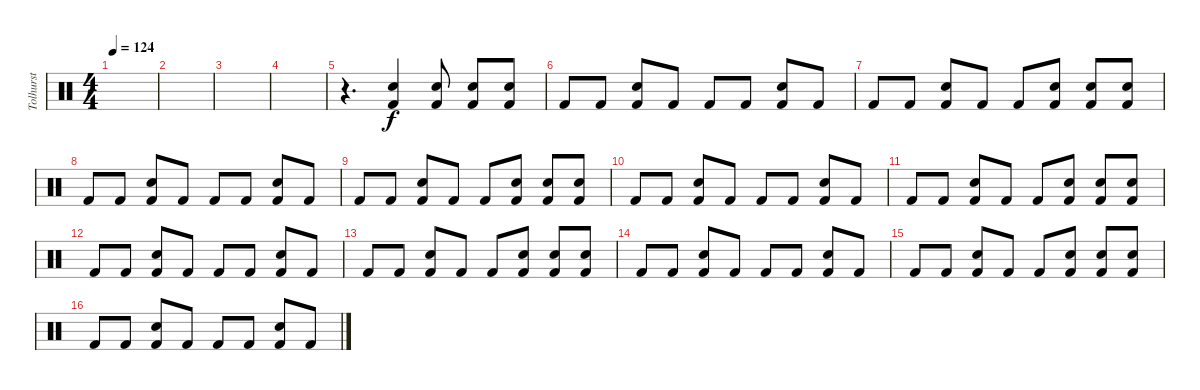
\track ("Tolhurst" "Tolhurst") {instrument percussion}
\staff {score}
\articulation defaults
\ts (4 4)
\tempo 124
\clef neutral
\ks c
|
|
|
|
r.4{d} ("Kick (hit) 2" "Snare (hit) 2").4 ("Kick (hit) 2" "Snare (hit) 2").8 ("Kick (hit) 2" "Snare (hit) 2").8 ("Kick (hit) 2" "Snare (hit) 2").8 |
"Kick (hit) 2".8 "Kick (hit) 2".8 ("Kick (hit) 2" "Snare (hit) 2").8 "Kick (hit) 2".8 "Kick (hit) 2".8 "Kick (hit) 2".8 ("Kick (hit) 2" "Snare (hit) 2").8 "Kick (hit) 2".8 |
"Kick (hit) 2".8 "Kick (hit) 2".8 ("Kick (hit) 2" "Snare (hit) 2").8 "Kick (hit) 2".8 "Kick (hit) 2".8 ("Kick (hit) 2" "Snare (hit) 2").8 ("Kick (hit) 2" "Snare (hit) 2").8 ("Kick (hit) 2" "Snare (hit) 2").8 |
"Kick (hit) 2".8 "Kick (hit) 2".8 ("Kick (hit) 2" "Snare (hit) 2").8 "Kick (hit) 2".8 "Kick (hit) 2".8 "Kick (hit) 2".8 ("Kick (hit) 2" "Snare (hit) 2").8 "Kick (hit) 2".8 |
"Kick (hit) 2".8 "Kick (hit) 2".8 ("Kick (hit) 2" "Snare (hit) 2").8 "Kick (hit) 2".8 "Kick (hit) 2".8 ("Kick (hit) 2" "Snare (hit) 2").8 ("Kick (hit) 2" "Snare (hit) 2").8 ("Kick (hit) 2" "Snare (hit) 2").8 |
"Kick (hit) 2".8 "Kick (hit) 2".8 ("Kick (hit) 2" "Snare (hit) 2").8 "Kick (hit) 2".8 "Kick (hit) 2".8 "Kick (hit) 2".8 ("Kick (hit) 2" "Snare (hit) 2").8 "Kick (hit) 2".8 |
"Kick (hit) 2".8 "Kick (hit) 2".8 ("Kick (hit) 2" "Snare (hit) 2").8 "Kick (hit) 2".8 "Kick (hit) 2".8 ("Kick (hit) 2" "Snare (hit) 2").8 ("Kick (hit) 2" "Snare (hit) 2").8 ("Kick (hit) 2" "Snare (hit) 2").8 |
"Kick (hit) 2".8 "Kick (hit) 2".8 ("Kick (hit) 2" "Snare (hit) 2").8 "Kick (hit) 2".8 "Kick (hit) 2".8 "Kick (hit) 2".8 ("Kick (hit) 2" "Snare (hit) 2").8 "Kick (hit) 2".8 |
"Kick (hit) 2".8 "Kick (hit) 2".8 ("Kick (hit) 2" "Snare (hit) 2").8 "Kick (hit) 2".8 "Kick (hit) 2".8 ("Kick (hit) 2" "Snare (hit) 2").8 ("Kick (hit) 2" "Snare (hit) 2").8 ("Kick (hit) 2" "Snare (hit) 2").8 |
"Kick (hit) 2".8 "Kick (hit) 2".8 ("Kick (hit) 2" "Snare (hit) 2").8 "Kick (hit) 2".8 "Kick (hit) 2".8 "Kick (hit) 2".8 ("Kick (hit) 2" "Snare (hit) 2").8 "Kick (hit) 2".8 |
"Kick (hit) 2".8 "Kick (hit) 2".8 ("Kick (hit) 2" "Snare (hit) 2").8 "Kick (hit) 2".8 "Kick (hit) 2".8 ("Kick (hit) 2" "Snare (hit) 2").8 ("Kick (hit) 2" "Snare (hit) 2").8 ("Kick (hit) 2" "Snare (hit) 2").8 |
"Kick (hit) 2".8 "Kick (hit) 2".8 ("Kick (hit) 2" "Snare (hit) 2").8 "Kick (hit) 2".8 "Kick (hit) 2".8 "Kick (hit) 2".8 ("Kick (hit) 2" "Snare (hit) 2").8 "Kick (hit) 2".8
